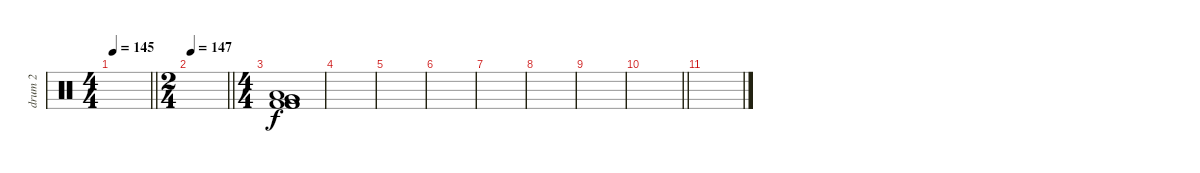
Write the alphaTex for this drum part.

\track ("drum 2" "drum 2") {instrument percussion}
\staff {score}
\articulation defaults
\ts (4 4)
\tempo 145
\clef neutral
\barLineRight lightlight
\ks c
|
\ts (2 4)
\tempo 147
\barLineRight lightlight
|
\ts (4 4)
\section ("" "")
("Low Floor Tom (hit)" "Very Low Tom (hit)" "Very Low Tom (hit)" "Kick (hit) 2" "Kick (hit) 2" "Kick (hit) 2").1 |
|
|
|
|
|
|
\barLineRight lightlight
|
\section ("" "")
